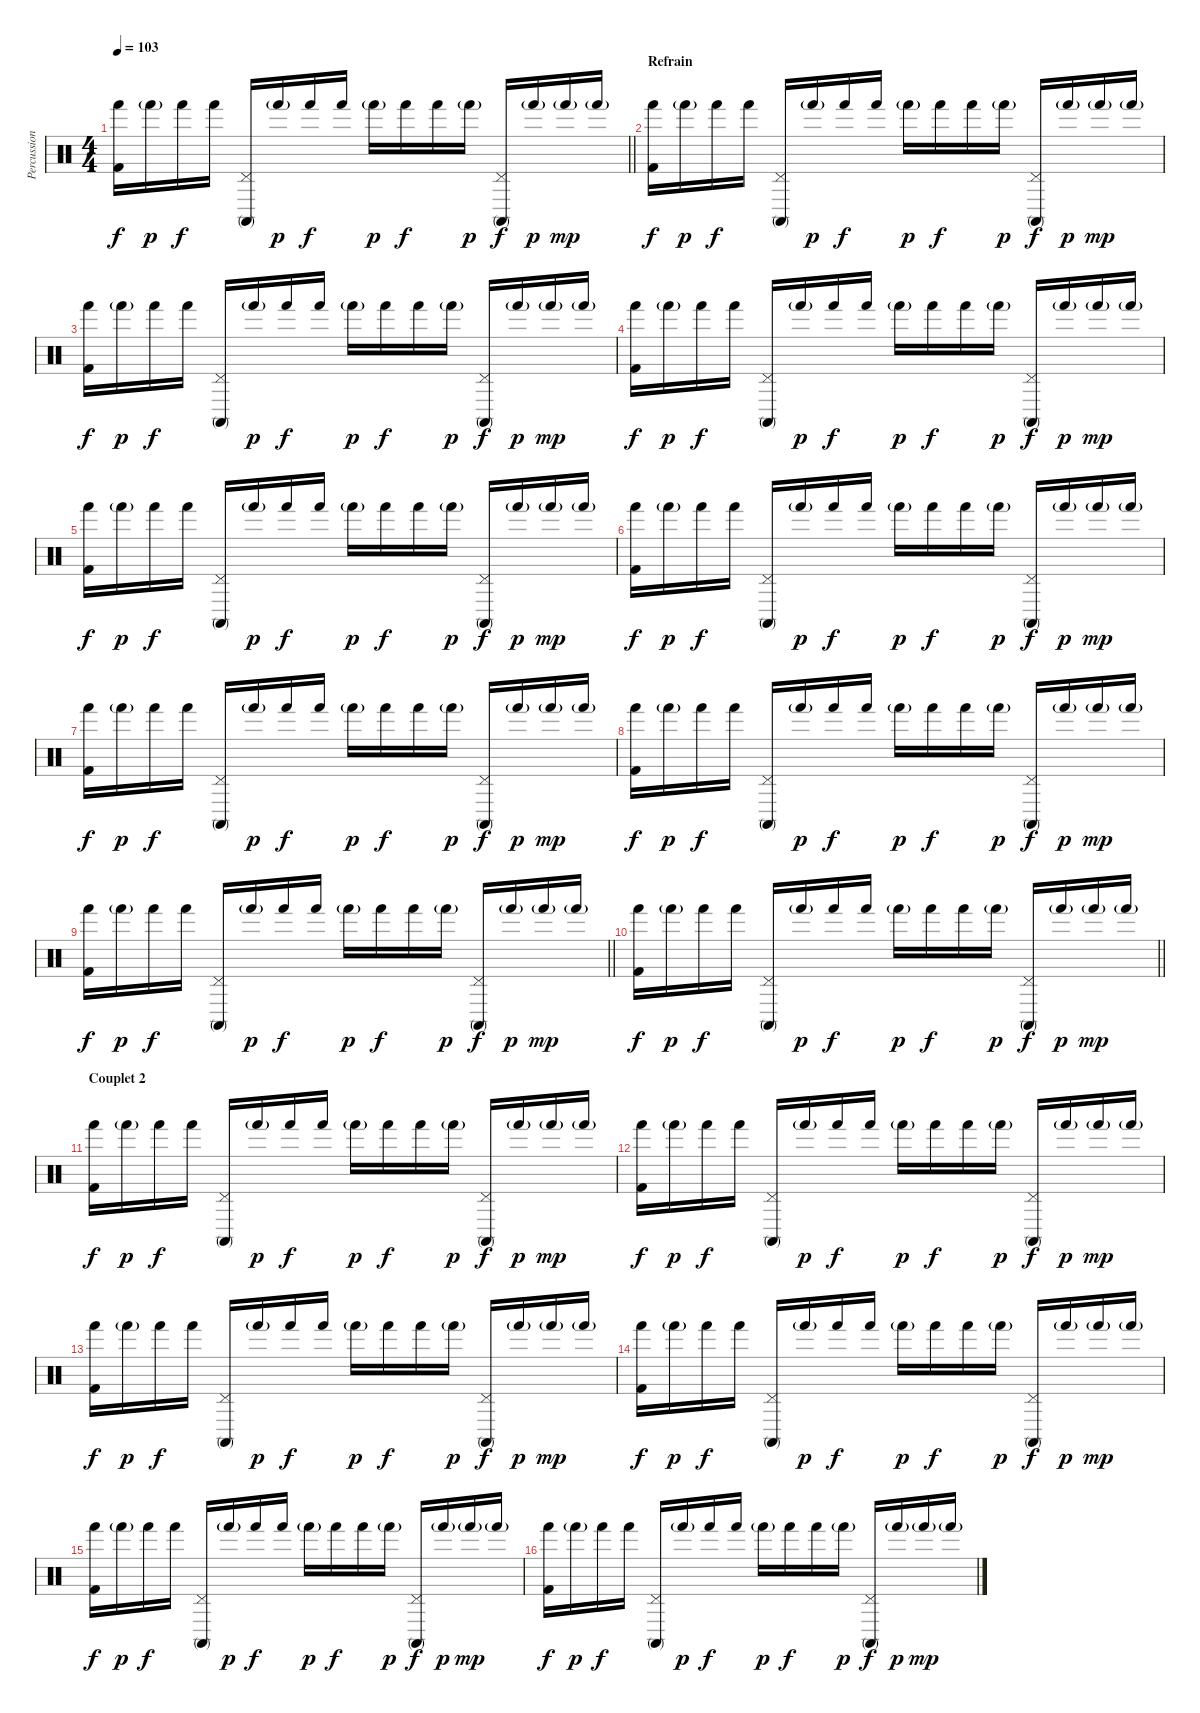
\track ("Percussions" "Percussion") {instrument percussion}
\staff {score}
\articulation defaults
\ts (4 4)
\tempo 103
\clef neutral
\barLineRight lightlight
\ks c
("Hand (hit)" "Kick (hit) 2").16{dy f} "Hand (hit)"{g}.16{dy p} "Hand (hit)".16{dy f} "Hand (hit)".16 ("Pedal Hi-Hat (hit)" "Conga high (mute)").16 "Hand (hit)"{g}.16{dy p} "Hand (hit)".16{dy f} "Hand (hit)".16 "Hand (hit)"{g}.16{dy p} "Hand (hit)".16{dy f} "Hand (hit)".16 "Hand (hit)"{g}.16{dy p} ("Pedal Hi-Hat (hit)" "Conga high (mute)").16{dy f} "Hand (hit)"{g}.16{dy p} "Hand (hit)"{g}.16{dy mp} "Hand (hit)"{g}.16 |
\section ("" "Refrain")
("Hand (hit)" "Kick (hit) 2").16{dy f} "Hand (hit)"{g}.16{dy p} "Hand (hit)".16{dy f} "Hand (hit)".16 ("Pedal Hi-Hat (hit)" "Conga high (mute)").16 "Hand (hit)"{g}.16{dy p} "Hand (hit)".16{dy f} "Hand (hit)".16 "Hand (hit)"{g}.16{dy p} "Hand (hit)".16{dy f} "Hand (hit)".16 "Hand (hit)"{g}.16{dy p} ("Pedal Hi-Hat (hit)" "Conga high (mute)").16{dy f} "Hand (hit)"{g}.16{dy p} "Hand (hit)"{g}.16{dy mp} "Hand (hit)"{g}.16 |
("Hand (hit)" "Kick (hit) 2").16{dy f} "Hand (hit)"{g}.16{dy p} "Hand (hit)".16{dy f} "Hand (hit)".16 ("Pedal Hi-Hat (hit)" "Conga high (mute)").16 "Hand (hit)"{g}.16{dy p} "Hand (hit)".16{dy f} "Hand (hit)".16 "Hand (hit)"{g}.16{dy p} "Hand (hit)".16{dy f} "Hand (hit)".16 "Hand (hit)"{g}.16{dy p} ("Pedal Hi-Hat (hit)" "Conga high (mute)").16{dy f} "Hand (hit)"{g}.16{dy p} "Hand (hit)"{g}.16{dy mp} "Hand (hit)"{g}.16 |
("Hand (hit)" "Kick (hit) 2").16{dy f} "Hand (hit)"{g}.16{dy p} "Hand (hit)".16{dy f} "Hand (hit)".16 ("Pedal Hi-Hat (hit)" "Conga high (mute)").16 "Hand (hit)"{g}.16{dy p} "Hand (hit)".16{dy f} "Hand (hit)".16 "Hand (hit)"{g}.16{dy p} "Hand (hit)".16{dy f} "Hand (hit)".16 "Hand (hit)"{g}.16{dy p} ("Pedal Hi-Hat (hit)" "Conga high (mute)").16{dy f} "Hand (hit)"{g}.16{dy p} "Hand (hit)"{g}.16{dy mp} "Hand (hit)"{g}.16 |
("Hand (hit)" "Kick (hit) 2").16{dy f} "Hand (hit)"{g}.16{dy p} "Hand (hit)".16{dy f} "Hand (hit)".16 ("Pedal Hi-Hat (hit)" "Conga high (mute)").16 "Hand (hit)"{g}.16{dy p} "Hand (hit)".16{dy f} "Hand (hit)".16 "Hand (hit)"{g}.16{dy p} "Hand (hit)".16{dy f} "Hand (hit)".16 "Hand (hit)"{g}.16{dy p} ("Pedal Hi-Hat (hit)" "Conga high (mute)").16{dy f} "Hand (hit)"{g}.16{dy p} "Hand (hit)"{g}.16{dy mp} "Hand (hit)"{g}.16 |
("Hand (hit)" "Kick (hit) 2").16{dy f} "Hand (hit)"{g}.16{dy p} "Hand (hit)".16{dy f} "Hand (hit)".16 ("Pedal Hi-Hat (hit)" "Conga high (mute)").16 "Hand (hit)"{g}.16{dy p} "Hand (hit)".16{dy f} "Hand (hit)".16 "Hand (hit)"{g}.16{dy p} "Hand (hit)".16{dy f} "Hand (hit)".16 "Hand (hit)"{g}.16{dy p} ("Pedal Hi-Hat (hit)" "Conga high (mute)").16{dy f} "Hand (hit)"{g}.16{dy p} "Hand (hit)"{g}.16{dy mp} "Hand (hit)"{g}.16 |
("Hand (hit)" "Kick (hit) 2").16{dy f} "Hand (hit)"{g}.16{dy p} "Hand (hit)".16{dy f} "Hand (hit)".16 ("Pedal Hi-Hat (hit)" "Conga high (mute)").16 "Hand (hit)"{g}.16{dy p} "Hand (hit)".16{dy f} "Hand (hit)".16 "Hand (hit)"{g}.16{dy p} "Hand (hit)".16{dy f} "Hand (hit)".16 "Hand (hit)"{g}.16{dy p} ("Pedal Hi-Hat (hit)" "Conga high (mute)").16{dy f} "Hand (hit)"{g}.16{dy p} "Hand (hit)"{g}.16{dy mp} "Hand (hit)"{g}.16 |
("Hand (hit)" "Kick (hit) 2").16{dy f} "Hand (hit)"{g}.16{dy p} "Hand (hit)".16{dy f} "Hand (hit)".16 ("Pedal Hi-Hat (hit)" "Conga high (mute)").16 "Hand (hit)"{g}.16{dy p} "Hand (hit)".16{dy f} "Hand (hit)".16 "Hand (hit)"{g}.16{dy p} "Hand (hit)".16{dy f} "Hand (hit)".16 "Hand (hit)"{g}.16{dy p} ("Pedal Hi-Hat (hit)" "Conga high (mute)").16{dy f} "Hand (hit)"{g}.16{dy p} "Hand (hit)"{g}.16{dy mp} "Hand (hit)"{g}.16 |
\barLineRight lightlight
("Hand (hit)" "Kick (hit) 2").16{dy f} "Hand (hit)"{g}.16{dy p} "Hand (hit)".16{dy f} "Hand (hit)".16 ("Pedal Hi-Hat (hit)" "Conga high (mute)").16 "Hand (hit)"{g}.16{dy p} "Hand (hit)".16{dy f} "Hand (hit)".16 "Hand (hit)"{g}.16{dy p} "Hand (hit)".16{dy f} "Hand (hit)".16 "Hand (hit)"{g}.16{dy p} ("Pedal Hi-Hat (hit)" "Conga high (mute)").16{dy f} "Hand (hit)"{g}.16{dy p} "Hand (hit)"{g}.16{dy mp} "Hand (hit)"{g}.16 |
\barLineRight lightlight
("Hand (hit)" "Kick (hit) 2").16{dy f} "Hand (hit)"{g}.16{dy p} "Hand (hit)".16{dy f} "Hand (hit)".16 ("Pedal Hi-Hat (hit)" "Conga high (mute)").16 "Hand (hit)"{g}.16{dy p} "Hand (hit)".16{dy f} "Hand (hit)".16 "Hand (hit)"{g}.16{dy p} "Hand (hit)".16{dy f} "Hand (hit)".16 "Hand (hit)"{g}.16{dy p} ("Pedal Hi-Hat (hit)" "Conga high (mute)").16{dy f} "Hand (hit)"{g}.16{dy p} "Hand (hit)"{g}.16{dy mp} "Hand (hit)"{g}.16 |
\section ("" "Couplet 2")
("Hand (hit)" "Kick (hit) 2").16{dy f} "Hand (hit)"{g}.16{dy p} "Hand (hit)".16{dy f} "Hand (hit)".16 ("Pedal Hi-Hat (hit)" "Conga high (mute)").16 "Hand (hit)"{g}.16{dy p} "Hand (hit)".16{dy f} "Hand (hit)".16 "Hand (hit)"{g}.16{dy p} "Hand (hit)".16{dy f} "Hand (hit)".16 "Hand (hit)"{g}.16{dy p} ("Pedal Hi-Hat (hit)" "Conga high (mute)").16{dy f} "Hand (hit)"{g}.16{dy p} "Hand (hit)"{g}.16{dy mp} "Hand (hit)"{g}.16 |
("Hand (hit)" "Kick (hit) 2").16{dy f} "Hand (hit)"{g}.16{dy p} "Hand (hit)".16{dy f} "Hand (hit)".16 ("Pedal Hi-Hat (hit)" "Conga high (mute)").16 "Hand (hit)"{g}.16{dy p} "Hand (hit)".16{dy f} "Hand (hit)".16 "Hand (hit)"{g}.16{dy p} "Hand (hit)".16{dy f} "Hand (hit)".16 "Hand (hit)"{g}.16{dy p} ("Pedal Hi-Hat (hit)" "Conga high (mute)").16{dy f} "Hand (hit)"{g}.16{dy p} "Hand (hit)"{g}.16{dy mp} "Hand (hit)"{g}.16 |
("Hand (hit)" "Kick (hit) 2").16{dy f} "Hand (hit)"{g}.16{dy p} "Hand (hit)".16{dy f} "Hand (hit)".16 ("Pedal Hi-Hat (hit)" "Conga high (mute)").16 "Hand (hit)"{g}.16{dy p} "Hand (hit)".16{dy f} "Hand (hit)".16 "Hand (hit)"{g}.16{dy p} "Hand (hit)".16{dy f} "Hand (hit)".16 "Hand (hit)"{g}.16{dy p} ("Pedal Hi-Hat (hit)" "Conga high (mute)").16{dy f} "Hand (hit)"{g}.16{dy p} "Hand (hit)"{g}.16{dy mp} "Hand (hit)"{g}.16 |
("Hand (hit)" "Kick (hit) 2").16{dy f} "Hand (hit)"{g}.16{dy p} "Hand (hit)".16{dy f} "Hand (hit)".16 ("Pedal Hi-Hat (hit)" "Conga high (mute)").16 "Hand (hit)"{g}.16{dy p} "Hand (hit)".16{dy f} "Hand (hit)".16 "Hand (hit)"{g}.16{dy p} "Hand (hit)".16{dy f} "Hand (hit)".16 "Hand (hit)"{g}.16{dy p} ("Pedal Hi-Hat (hit)" "Conga high (mute)").16{dy f} "Hand (hit)"{g}.16{dy p} "Hand (hit)"{g}.16{dy mp} "Hand (hit)"{g}.16 |
("Hand (hit)" "Kick (hit) 2").16{dy f} "Hand (hit)"{g}.16{dy p} "Hand (hit)".16{dy f} "Hand (hit)".16 ("Pedal Hi-Hat (hit)" "Conga high (mute)").16 "Hand (hit)"{g}.16{dy p} "Hand (hit)".16{dy f} "Hand (hit)".16 "Hand (hit)"{g}.16{dy p} "Hand (hit)".16{dy f} "Hand (hit)".16 "Hand (hit)"{g}.16{dy p} ("Pedal Hi-Hat (hit)" "Conga high (mute)").16{dy f} "Hand (hit)"{g}.16{dy p} "Hand (hit)"{g}.16{dy mp} "Hand (hit)"{g}.16 |
("Hand (hit)" "Kick (hit) 2").16{dy f} "Hand (hit)"{g}.16{dy p} "Hand (hit)".16{dy f} "Hand (hit)".16 ("Pedal Hi-Hat (hit)" "Conga high (mute)").16 "Hand (hit)"{g}.16{dy p} "Hand (hit)".16{dy f} "Hand (hit)".16 "Hand (hit)"{g}.16{dy p} "Hand (hit)".16{dy f} "Hand (hit)".16 "Hand (hit)"{g}.16{dy p} ("Pedal Hi-Hat (hit)" "Conga high (mute)").16{dy f} "Hand (hit)"{g}.16{dy p} "Hand (hit)"{g}.16{dy mp} "Hand (hit)"{g}.16
